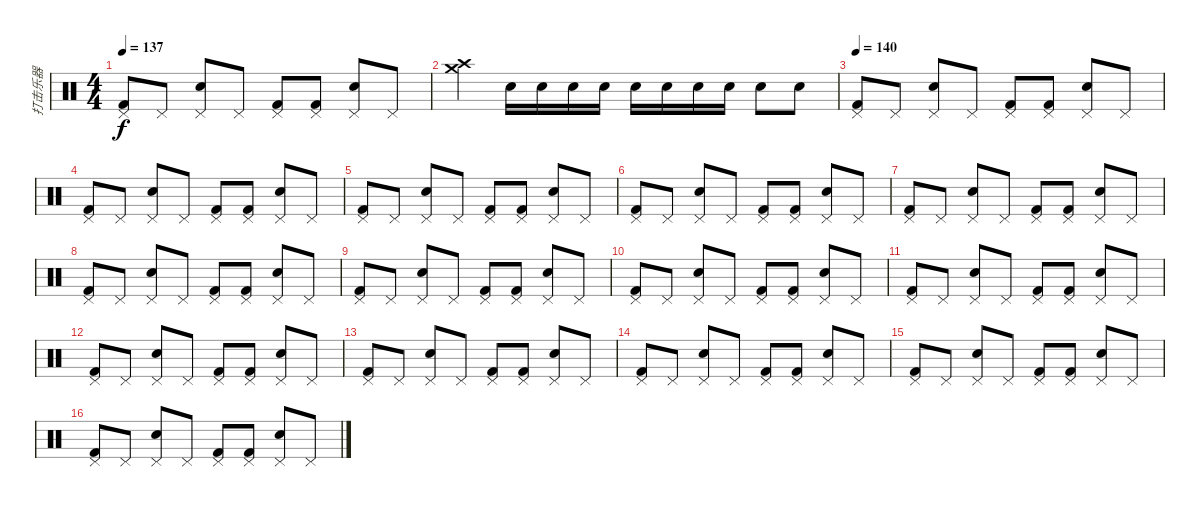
\track ("打击乐器" "打击乐器") {instrument percussion}
\staff {score}
\articulation defaults
\ts (4 4)
\tempo 137
\clef neutral
\ks c
("Pedal Hi-Hat (hit)" "Kick (hit) 2").8{dy f} "Pedal Hi-Hat (hit)".8 ("Snare (hit) 2" "Pedal Hi-Hat (hit)").8 "Pedal Hi-Hat (hit)".8 ("Pedal Hi-Hat (hit)" "Kick (hit) 2").8 ("Pedal Hi-Hat (hit)" "Kick (hit) 2").8 ("Snare (hit) 2" "Pedal Hi-Hat (hit)").8 "Pedal Hi-Hat (hit)".8 |
("Crash high (hit)" "Crash medium (hit)").4 "Electric Snare (hit)".16 "Electric Snare (hit)".16 "Electric Snare (hit)".16 "Electric Snare (hit)".16 "Electric Snare (hit)".16 "Electric Snare (hit)".16 "Electric Snare (hit)".16 "Electric Snare (hit)".16 "Electric Snare (hit)".8 "Snare (hit) 2".8 |
\tempo 140
("Pedal Hi-Hat (hit)" "Kick (hit) 2").8 "Pedal Hi-Hat (hit)".8 ("Snare (hit) 2" "Pedal Hi-Hat (hit)").8 "Pedal Hi-Hat (hit)".8 ("Pedal Hi-Hat (hit)" "Kick (hit) 2").8 ("Pedal Hi-Hat (hit)" "Kick (hit) 2").8 ("Snare (hit) 2" "Pedal Hi-Hat (hit)").8 "Pedal Hi-Hat (hit)".8 |
("Pedal Hi-Hat (hit)" "Kick (hit) 2").8 "Pedal Hi-Hat (hit)".8 ("Snare (hit) 2" "Pedal Hi-Hat (hit)").8 "Pedal Hi-Hat (hit)".8 ("Pedal Hi-Hat (hit)" "Kick (hit) 2").8 ("Pedal Hi-Hat (hit)" "Kick (hit) 2").8 ("Snare (hit) 2" "Pedal Hi-Hat (hit)").8 "Pedal Hi-Hat (hit)".8 |
("Pedal Hi-Hat (hit)" "Kick (hit) 2").8 "Pedal Hi-Hat (hit)".8 ("Snare (hit) 2" "Pedal Hi-Hat (hit)").8 "Pedal Hi-Hat (hit)".8 ("Pedal Hi-Hat (hit)" "Kick (hit) 2").8 ("Pedal Hi-Hat (hit)" "Kick (hit) 2").8 ("Snare (hit) 2" "Pedal Hi-Hat (hit)").8 "Pedal Hi-Hat (hit)".8 |
("Pedal Hi-Hat (hit)" "Kick (hit) 2").8 "Pedal Hi-Hat (hit)".8 ("Snare (hit) 2" "Pedal Hi-Hat (hit)").8 "Pedal Hi-Hat (hit)".8 ("Pedal Hi-Hat (hit)" "Kick (hit) 2").8 ("Pedal Hi-Hat (hit)" "Kick (hit) 2").8 ("Snare (hit) 2" "Pedal Hi-Hat (hit)").8 "Pedal Hi-Hat (hit)".8 |
("Pedal Hi-Hat (hit)" "Kick (hit) 2").8 "Pedal Hi-Hat (hit)".8 ("Snare (hit) 2" "Pedal Hi-Hat (hit)").8 "Pedal Hi-Hat (hit)".8 ("Pedal Hi-Hat (hit)" "Kick (hit) 2").8 ("Pedal Hi-Hat (hit)" "Kick (hit) 2").8 ("Snare (hit) 2" "Pedal Hi-Hat (hit)").8 "Pedal Hi-Hat (hit)".8 |
("Pedal Hi-Hat (hit)" "Kick (hit) 2").8 "Pedal Hi-Hat (hit)".8 ("Snare (hit) 2" "Pedal Hi-Hat (hit)").8 "Pedal Hi-Hat (hit)".8 ("Pedal Hi-Hat (hit)" "Kick (hit) 2").8 ("Pedal Hi-Hat (hit)" "Kick (hit) 2").8 ("Snare (hit) 2" "Pedal Hi-Hat (hit)").8 "Pedal Hi-Hat (hit)".8 |
("Pedal Hi-Hat (hit)" "Kick (hit) 2").8 "Pedal Hi-Hat (hit)".8 ("Snare (hit) 2" "Pedal Hi-Hat (hit)").8 "Pedal Hi-Hat (hit)".8 ("Pedal Hi-Hat (hit)" "Kick (hit) 2").8 ("Pedal Hi-Hat (hit)" "Kick (hit) 2").8 ("Snare (hit) 2" "Pedal Hi-Hat (hit)").8 "Pedal Hi-Hat (hit)".8 |
("Pedal Hi-Hat (hit)" "Kick (hit) 2").8 "Pedal Hi-Hat (hit)".8 ("Snare (hit) 2" "Pedal Hi-Hat (hit)").8 "Pedal Hi-Hat (hit)".8 ("Pedal Hi-Hat (hit)" "Kick (hit) 2").8 ("Pedal Hi-Hat (hit)" "Kick (hit) 2").8 ("Snare (hit) 2" "Pedal Hi-Hat (hit)").8 "Pedal Hi-Hat (hit)".8 |
("Pedal Hi-Hat (hit)" "Kick (hit) 2").8 "Pedal Hi-Hat (hit)".8 ("Snare (hit) 2" "Pedal Hi-Hat (hit)").8 "Pedal Hi-Hat (hit)".8 ("Pedal Hi-Hat (hit)" "Kick (hit) 2").8 ("Pedal Hi-Hat (hit)" "Kick (hit) 2").8 ("Snare (hit) 2" "Pedal Hi-Hat (hit)").8 "Pedal Hi-Hat (hit)".8 |
("Pedal Hi-Hat (hit)" "Kick (hit) 2").8 "Pedal Hi-Hat (hit)".8 ("Snare (hit) 2" "Pedal Hi-Hat (hit)").8 "Pedal Hi-Hat (hit)".8 ("Pedal Hi-Hat (hit)" "Kick (hit) 2").8 ("Pedal Hi-Hat (hit)" "Kick (hit) 2").8 ("Snare (hit) 2" "Pedal Hi-Hat (hit)").8 "Pedal Hi-Hat (hit)".8 |
("Pedal Hi-Hat (hit)" "Kick (hit) 2").8 "Pedal Hi-Hat (hit)".8 ("Snare (hit) 2" "Pedal Hi-Hat (hit)").8 "Pedal Hi-Hat (hit)".8 ("Pedal Hi-Hat (hit)" "Kick (hit) 2").8 ("Pedal Hi-Hat (hit)" "Kick (hit) 2").8 ("Snare (hit) 2" "Pedal Hi-Hat (hit)").8 "Pedal Hi-Hat (hit)".8 |
("Pedal Hi-Hat (hit)" "Kick (hit) 2").8 "Pedal Hi-Hat (hit)".8 ("Snare (hit) 2" "Pedal Hi-Hat (hit)").8 "Pedal Hi-Hat (hit)".8 ("Pedal Hi-Hat (hit)" "Kick (hit) 2").8 ("Pedal Hi-Hat (hit)" "Kick (hit) 2").8 ("Snare (hit) 2" "Pedal Hi-Hat (hit)").8 "Pedal Hi-Hat (hit)".8 |
("Pedal Hi-Hat (hit)" "Kick (hit) 2").8 "Pedal Hi-Hat (hit)".8 ("Snare (hit) 2" "Pedal Hi-Hat (hit)").8 "Pedal Hi-Hat (hit)".8 ("Pedal Hi-Hat (hit)" "Kick (hit) 2").8 ("Pedal Hi-Hat (hit)" "Kick (hit) 2").8 ("Snare (hit) 2" "Pedal Hi-Hat (hit)").8 "Pedal Hi-Hat (hit)".8 |
("Pedal Hi-Hat (hit)" "Kick (hit) 2").8 "Pedal Hi-Hat (hit)".8 ("Snare (hit) 2" "Pedal Hi-Hat (hit)").8 "Pedal Hi-Hat (hit)".8 ("Pedal Hi-Hat (hit)" "Kick (hit) 2").8 ("Pedal Hi-Hat (hit)" "Kick (hit) 2").8 ("Snare (hit) 2" "Pedal Hi-Hat (hit)").8 "Pedal Hi-Hat (hit)".8
